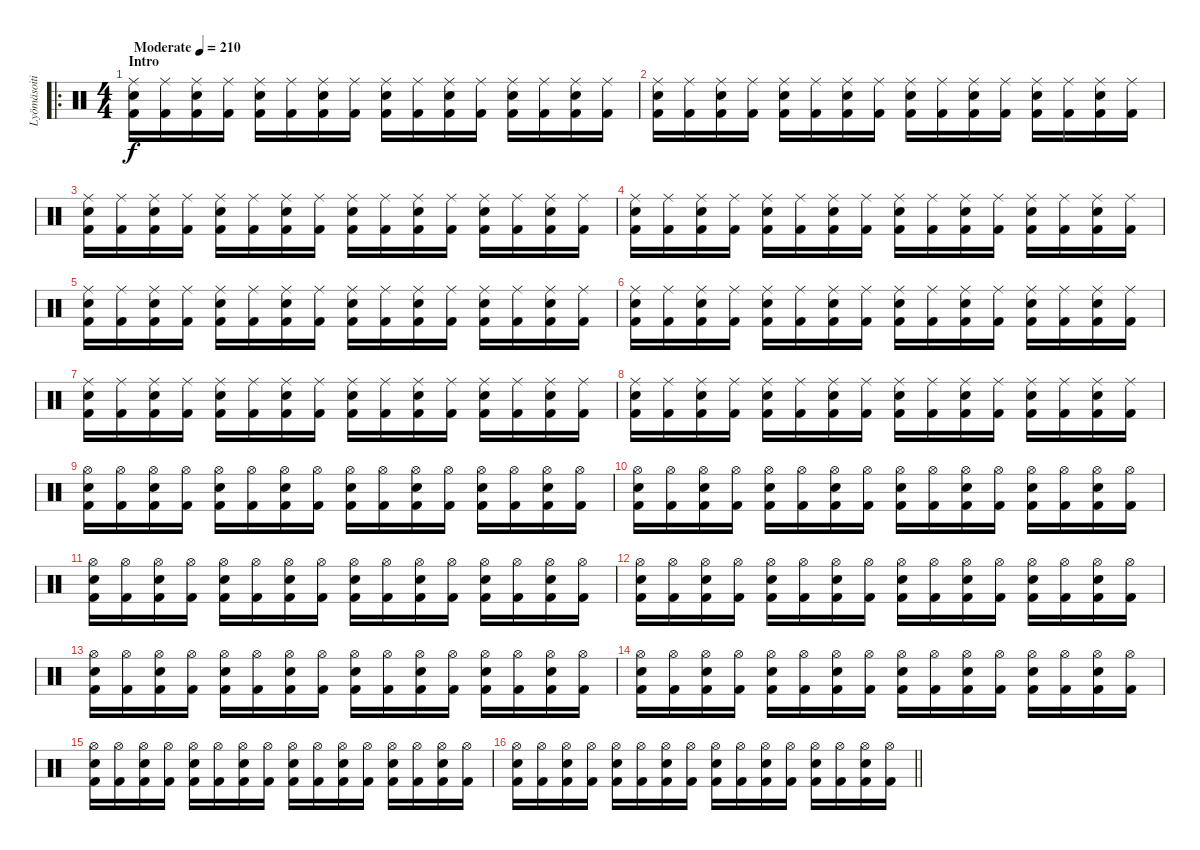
\track ("Lyömäsoitin" "Lyömäsoiti") {instrument percussion}
\staff {score}
\articulation defaults
\ro
\ts (4 4)
\section ("" "Intro")
\tempo (210 "Moderate")
\clef neutral
\ks c
("Ride (middle)" "Electric Snare (hit)" "Kick (hit) 2").16{dy f} ("Ride (middle)" "Kick (hit) 2").16 ("Ride (middle)" "Electric Snare (hit)" "Kick (hit) 2").16 ("Ride (middle)" "Kick (hit) 2").16 ("Ride (middle)" "Electric Snare (hit)" "Kick (hit) 2").16 ("Ride (middle)" "Kick (hit) 2").16 ("Ride (middle)" "Electric Snare (hit)" "Kick (hit) 2").16 ("Ride (middle)" "Kick (hit) 2").16 ("Ride (middle)" "Electric Snare (hit)" "Kick (hit) 2").16 ("Ride (middle)" "Kick (hit) 2").16 ("Ride (middle)" "Electric Snare (hit)" "Kick (hit) 2").16 ("Ride (middle)" "Kick (hit) 2").16 ("Ride (middle)" "Electric Snare (hit)" "Kick (hit) 2").16 ("Ride (middle)" "Kick (hit) 2").16 ("Ride (middle)" "Electric Snare (hit)" "Kick (hit) 2").16 ("Ride (middle)" "Kick (hit) 2").16 |
("Ride (middle)" "Electric Snare (hit)" "Kick (hit) 2").16 ("Ride (middle)" "Kick (hit) 2").16 ("Ride (middle)" "Electric Snare (hit)" "Kick (hit) 2").16 ("Ride (middle)" "Kick (hit) 2").16 ("Ride (middle)" "Electric Snare (hit)" "Kick (hit) 2").16 ("Ride (middle)" "Kick (hit) 2").16 ("Ride (middle)" "Electric Snare (hit)" "Kick (hit) 2").16 ("Ride (middle)" "Kick (hit) 2").16 ("Ride (middle)" "Electric Snare (hit)" "Kick (hit) 2").16 ("Ride (middle)" "Kick (hit) 2").16 ("Ride (middle)" "Electric Snare (hit)" "Kick (hit) 2").16 ("Ride (middle)" "Kick (hit) 2").16 ("Ride (middle)" "Electric Snare (hit)" "Kick (hit) 2").16 ("Ride (middle)" "Kick (hit) 2").16 ("Ride (middle)" "Electric Snare (hit)" "Kick (hit) 2").16 ("Ride (middle)" "Kick (hit) 2").16 |
("Ride (middle)" "Electric Snare (hit)" "Kick (hit) 2").16 ("Ride (middle)" "Kick (hit) 2").16 ("Ride (middle)" "Electric Snare (hit)" "Kick (hit) 2").16 ("Ride (middle)" "Kick (hit) 2").16 ("Ride (middle)" "Electric Snare (hit)" "Kick (hit) 2").16 ("Ride (middle)" "Kick (hit) 2").16 ("Ride (middle)" "Electric Snare (hit)" "Kick (hit) 2").16 ("Ride (middle)" "Kick (hit) 2").16 ("Ride (middle)" "Electric Snare (hit)" "Kick (hit) 2").16 ("Ride (middle)" "Kick (hit) 2").16 ("Ride (middle)" "Electric Snare (hit)" "Kick (hit) 2").16 ("Ride (middle)" "Kick (hit) 2").16 ("Ride (middle)" "Electric Snare (hit)" "Kick (hit) 2").16 ("Ride (middle)" "Kick (hit) 2").16 ("Ride (middle)" "Electric Snare (hit)" "Kick (hit) 2").16 ("Ride (middle)" "Kick (hit) 2").16 |
("Ride (middle)" "Electric Snare (hit)" "Kick (hit) 2").16 ("Ride (middle)" "Kick (hit) 2").16 ("Ride (middle)" "Electric Snare (hit)" "Kick (hit) 2").16 ("Ride (middle)" "Kick (hit) 2").16 ("Ride (middle)" "Electric Snare (hit)" "Kick (hit) 2").16 ("Ride (middle)" "Kick (hit) 2").16 ("Ride (middle)" "Electric Snare (hit)" "Kick (hit) 2").16 ("Ride (middle)" "Kick (hit) 2").16 ("Ride (middle)" "Electric Snare (hit)" "Kick (hit) 2").16 ("Ride (middle)" "Kick (hit) 2").16 ("Ride (middle)" "Electric Snare (hit)" "Kick (hit) 2").16 ("Ride (middle)" "Kick (hit) 2").16 ("Ride (middle)" "Electric Snare (hit)" "Kick (hit) 2").16 ("Ride (middle)" "Kick (hit) 2").16 ("Ride (middle)" "Electric Snare (hit)" "Kick (hit) 2").16 ("Ride (middle)" "Kick (hit) 2").16 |
("Ride (middle)" "Electric Snare (hit)" "Kick (hit) 2").16 ("Ride (middle)" "Kick (hit) 2").16 ("Ride (middle)" "Electric Snare (hit)" "Kick (hit) 2").16 ("Ride (middle)" "Kick (hit) 2").16 ("Ride (middle)" "Electric Snare (hit)" "Kick (hit) 2").16 ("Ride (middle)" "Kick (hit) 2").16 ("Ride (middle)" "Electric Snare (hit)" "Kick (hit) 2").16 ("Ride (middle)" "Kick (hit) 2").16 ("Ride (middle)" "Electric Snare (hit)" "Kick (hit) 2").16 ("Ride (middle)" "Kick (hit) 2").16 ("Ride (middle)" "Electric Snare (hit)" "Kick (hit) 2").16 ("Ride (middle)" "Kick (hit) 2").16 ("Ride (middle)" "Electric Snare (hit)" "Kick (hit) 2").16 ("Ride (middle)" "Kick (hit) 2").16 ("Ride (middle)" "Electric Snare (hit)" "Kick (hit) 2").16 ("Ride (middle)" "Kick (hit) 2").16 |
("Ride (middle)" "Electric Snare (hit)" "Kick (hit) 2").16 ("Ride (middle)" "Kick (hit) 2").16 ("Ride (middle)" "Electric Snare (hit)" "Kick (hit) 2").16 ("Ride (middle)" "Kick (hit) 2").16 ("Ride (middle)" "Electric Snare (hit)" "Kick (hit) 2").16 ("Ride (middle)" "Kick (hit) 2").16 ("Ride (middle)" "Electric Snare (hit)" "Kick (hit) 2").16 ("Ride (middle)" "Kick (hit) 2").16 ("Ride (middle)" "Electric Snare (hit)" "Kick (hit) 2").16 ("Ride (middle)" "Kick (hit) 2").16 ("Ride (middle)" "Electric Snare (hit)" "Kick (hit) 2").16 ("Ride (middle)" "Kick (hit) 2").16 ("Ride (middle)" "Electric Snare (hit)" "Kick (hit) 2").16 ("Ride (middle)" "Kick (hit) 2").16 ("Ride (middle)" "Electric Snare (hit)" "Kick (hit) 2").16 ("Ride (middle)" "Kick (hit) 2").16 |
("Ride (middle)" "Electric Snare (hit)" "Kick (hit) 2").16 ("Ride (middle)" "Kick (hit) 2").16 ("Ride (middle)" "Electric Snare (hit)" "Kick (hit) 2").16 ("Ride (middle)" "Kick (hit) 2").16 ("Ride (middle)" "Electric Snare (hit)" "Kick (hit) 2").16 ("Ride (middle)" "Kick (hit) 2").16 ("Ride (middle)" "Electric Snare (hit)" "Kick (hit) 2").16 ("Ride (middle)" "Kick (hit) 2").16 ("Ride (middle)" "Electric Snare (hit)" "Kick (hit) 2").16 ("Ride (middle)" "Kick (hit) 2").16 ("Ride (middle)" "Electric Snare (hit)" "Kick (hit) 2").16 ("Ride (middle)" "Kick (hit) 2").16 ("Ride (middle)" "Electric Snare (hit)" "Kick (hit) 2").16 ("Ride (middle)" "Kick (hit) 2").16 ("Ride (middle)" "Electric Snare (hit)" "Kick (hit) 2").16 ("Ride (middle)" "Kick (hit) 2").16 |
("Ride (middle)" "Electric Snare (hit)" "Kick (hit) 2").16 ("Ride (middle)" "Kick (hit) 2").16 ("Ride (middle)" "Electric Snare (hit)" "Kick (hit) 2").16 ("Ride (middle)" "Kick (hit) 2").16 ("Ride (middle)" "Electric Snare (hit)" "Kick (hit) 2").16 ("Ride (middle)" "Kick (hit) 2").16 ("Ride (middle)" "Electric Snare (hit)" "Kick (hit) 2").16 ("Ride (middle)" "Kick (hit) 2").16 ("Ride (middle)" "Electric Snare (hit)" "Kick (hit) 2").16 ("Ride (middle)" "Kick (hit) 2").16 ("Ride (middle)" "Electric Snare (hit)" "Kick (hit) 2").16 ("Ride (middle)" "Kick (hit) 2").16 ("Ride (middle)" "Electric Snare (hit)" "Kick (hit) 2").16 ("Ride (middle)" "Kick (hit) 2").16 ("Ride (middle)" "Electric Snare (hit)" "Kick (hit) 2").16 ("Ride (middle)" "Kick (hit) 2").16 |
("Hi-Hat (open)" "Electric Snare (hit)" "Kick (hit) 2").16 ("Hi-Hat (open)" "Kick (hit) 2").16 ("Hi-Hat (open)" "Electric Snare (hit)" "Kick (hit) 2").16 ("Hi-Hat (open)" "Kick (hit) 2").16 ("Hi-Hat (open)" "Electric Snare (hit)" "Kick (hit) 2").16 ("Hi-Hat (open)" "Kick (hit) 2").16 ("Hi-Hat (open)" "Electric Snare (hit)" "Kick (hit) 2").16 ("Hi-Hat (open)" "Kick (hit) 2").16 ("Hi-Hat (open)" "Electric Snare (hit)" "Kick (hit) 2").16 ("Hi-Hat (open)" "Kick (hit) 2").16 ("Hi-Hat (open)" "Electric Snare (hit)" "Kick (hit) 2").16 ("Hi-Hat (open)" "Kick (hit) 2").16 ("Hi-Hat (open)" "Electric Snare (hit)" "Kick (hit) 2").16 ("Hi-Hat (open)" "Kick (hit) 2").16 ("Hi-Hat (open)" "Electric Snare (hit)" "Kick (hit) 2").16 ("Hi-Hat (open)" "Kick (hit) 2").16 |
("Hi-Hat (open)" "Electric Snare (hit)" "Kick (hit) 2").16 ("Hi-Hat (open)" "Kick (hit) 2").16 ("Hi-Hat (open)" "Electric Snare (hit)" "Kick (hit) 2").16 ("Hi-Hat (open)" "Kick (hit) 2").16 ("Hi-Hat (open)" "Electric Snare (hit)" "Kick (hit) 2").16 ("Hi-Hat (open)" "Kick (hit) 2").16 ("Hi-Hat (open)" "Electric Snare (hit)" "Kick (hit) 2").16 ("Hi-Hat (open)" "Kick (hit) 2").16 ("Hi-Hat (open)" "Electric Snare (hit)" "Kick (hit) 2").16 ("Hi-Hat (open)" "Kick (hit) 2").16 ("Hi-Hat (open)" "Electric Snare (hit)" "Kick (hit) 2").16 ("Hi-Hat (open)" "Kick (hit) 2").16 ("Hi-Hat (open)" "Electric Snare (hit)" "Kick (hit) 2").16 ("Hi-Hat (open)" "Kick (hit) 2").16 ("Hi-Hat (open)" "Electric Snare (hit)" "Kick (hit) 2").16 ("Hi-Hat (open)" "Kick (hit) 2").16 |
("Hi-Hat (open)" "Electric Snare (hit)" "Kick (hit) 2").16 ("Hi-Hat (open)" "Kick (hit) 2").16 ("Hi-Hat (open)" "Electric Snare (hit)" "Kick (hit) 2").16 ("Hi-Hat (open)" "Kick (hit) 2").16 ("Hi-Hat (open)" "Electric Snare (hit)" "Kick (hit) 2").16 ("Hi-Hat (open)" "Kick (hit) 2").16 ("Hi-Hat (open)" "Electric Snare (hit)" "Kick (hit) 2").16 ("Hi-Hat (open)" "Kick (hit) 2").16 ("Hi-Hat (open)" "Electric Snare (hit)" "Kick (hit) 2").16 ("Hi-Hat (open)" "Kick (hit) 2").16 ("Hi-Hat (open)" "Electric Snare (hit)" "Kick (hit) 2").16 ("Hi-Hat (open)" "Kick (hit) 2").16 ("Hi-Hat (open)" "Electric Snare (hit)" "Kick (hit) 2").16 ("Hi-Hat (open)" "Kick (hit) 2").16 ("Hi-Hat (open)" "Electric Snare (hit)" "Kick (hit) 2").16 ("Hi-Hat (open)" "Kick (hit) 2").16 |
("Hi-Hat (open)" "Electric Snare (hit)" "Kick (hit) 2").16 ("Hi-Hat (open)" "Kick (hit) 2").16 ("Hi-Hat (open)" "Electric Snare (hit)" "Kick (hit) 2").16 ("Hi-Hat (open)" "Kick (hit) 2").16 ("Hi-Hat (open)" "Electric Snare (hit)" "Kick (hit) 2").16 ("Hi-Hat (open)" "Kick (hit) 2").16 ("Hi-Hat (open)" "Electric Snare (hit)" "Kick (hit) 2").16 ("Hi-Hat (open)" "Kick (hit) 2").16 ("Hi-Hat (open)" "Electric Snare (hit)" "Kick (hit) 2").16 ("Hi-Hat (open)" "Kick (hit) 2").16 ("Hi-Hat (open)" "Electric Snare (hit)" "Kick (hit) 2").16 ("Hi-Hat (open)" "Kick (hit) 2").16 ("Hi-Hat (open)" "Electric Snare (hit)" "Kick (hit) 2").16 ("Hi-Hat (open)" "Kick (hit) 2").16 ("Hi-Hat (open)" "Electric Snare (hit)" "Kick (hit) 2").16 ("Hi-Hat (open)" "Kick (hit) 2").16 |
("Hi-Hat (open)" "Electric Snare (hit)" "Kick (hit) 2").16 ("Hi-Hat (open)" "Kick (hit) 2").16 ("Hi-Hat (open)" "Electric Snare (hit)" "Kick (hit) 2").16 ("Hi-Hat (open)" "Kick (hit) 2").16 ("Hi-Hat (open)" "Electric Snare (hit)" "Kick (hit) 2").16 ("Hi-Hat (open)" "Kick (hit) 2").16 ("Hi-Hat (open)" "Electric Snare (hit)" "Kick (hit) 2").16 ("Hi-Hat (open)" "Kick (hit) 2").16 ("Hi-Hat (open)" "Electric Snare (hit)" "Kick (hit) 2").16 ("Hi-Hat (open)" "Kick (hit) 2").16 ("Hi-Hat (open)" "Electric Snare (hit)" "Kick (hit) 2").16 ("Hi-Hat (open)" "Kick (hit) 2").16 ("Hi-Hat (open)" "Electric Snare (hit)" "Kick (hit) 2").16 ("Hi-Hat (open)" "Kick (hit) 2").16 ("Hi-Hat (open)" "Electric Snare (hit)" "Kick (hit) 2").16 ("Hi-Hat (open)" "Kick (hit) 2").16 |
("Hi-Hat (open)" "Electric Snare (hit)" "Kick (hit) 2").16 ("Hi-Hat (open)" "Kick (hit) 2").16 ("Hi-Hat (open)" "Electric Snare (hit)" "Kick (hit) 2").16 ("Hi-Hat (open)" "Kick (hit) 2").16 ("Hi-Hat (open)" "Electric Snare (hit)" "Kick (hit) 2").16 ("Hi-Hat (open)" "Kick (hit) 2").16 ("Hi-Hat (open)" "Electric Snare (hit)" "Kick (hit) 2").16 ("Hi-Hat (open)" "Kick (hit) 2").16 ("Hi-Hat (open)" "Electric Snare (hit)" "Kick (hit) 2").16 ("Hi-Hat (open)" "Kick (hit) 2").16 ("Hi-Hat (open)" "Electric Snare (hit)" "Kick (hit) 2").16 ("Hi-Hat (open)" "Kick (hit) 2").16 ("Hi-Hat (open)" "Electric Snare (hit)" "Kick (hit) 2").16 ("Hi-Hat (open)" "Kick (hit) 2").16 ("Hi-Hat (open)" "Electric Snare (hit)" "Kick (hit) 2").16 ("Hi-Hat (open)" "Kick (hit) 2").16 |
("Hi-Hat (open)" "Electric Snare (hit)" "Kick (hit) 2").16 ("Hi-Hat (open)" "Kick (hit) 2").16 ("Hi-Hat (open)" "Electric Snare (hit)" "Kick (hit) 2").16 ("Hi-Hat (open)" "Kick (hit) 2").16 ("Hi-Hat (open)" "Electric Snare (hit)" "Kick (hit) 2").16 ("Hi-Hat (open)" "Kick (hit) 2").16 ("Hi-Hat (open)" "Electric Snare (hit)" "Kick (hit) 2").16 ("Hi-Hat (open)" "Kick (hit) 2").16 ("Hi-Hat (open)" "Electric Snare (hit)" "Kick (hit) 2").16 ("Hi-Hat (open)" "Kick (hit) 2").16 ("Hi-Hat (open)" "Electric Snare (hit)" "Kick (hit) 2").16 ("Hi-Hat (open)" "Kick (hit) 2").16 ("Hi-Hat (open)" "Electric Snare (hit)" "Kick (hit) 2").16 ("Hi-Hat (open)" "Kick (hit) 2").16 ("Hi-Hat (open)" "Electric Snare (hit)" "Kick (hit) 2").16 ("Hi-Hat (open)" "Kick (hit) 2").16 |
\barLineRight lightlight
("Hi-Hat (open)" "Electric Snare (hit)" "Kick (hit) 2").16 ("Hi-Hat (open)" "Kick (hit) 2").16 ("Hi-Hat (open)" "Electric Snare (hit)" "Kick (hit) 2").16 ("Hi-Hat (open)" "Kick (hit) 2").16 ("Hi-Hat (open)" "Electric Snare (hit)" "Kick (hit) 2").16 ("Hi-Hat (open)" "Kick (hit) 2").16 ("Hi-Hat (open)" "Electric Snare (hit)" "Kick (hit) 2").16 ("Hi-Hat (open)" "Kick (hit) 2").16 ("Hi-Hat (open)" "Electric Snare (hit)" "Kick (hit) 2").16 ("Hi-Hat (open)" "Kick (hit) 2").16 ("Hi-Hat (open)" "Electric Snare (hit)" "Kick (hit) 2").16 ("Hi-Hat (open)" "Kick (hit) 2").16 ("Hi-Hat (open)" "Electric Snare (hit)" "Kick (hit) 2").16 ("Hi-Hat (open)" "Kick (hit) 2").16 ("Hi-Hat (open)" "Electric Snare (hit)" "Kick (hit) 2").16 ("Hi-Hat (open)" "Kick (hit) 2").16
